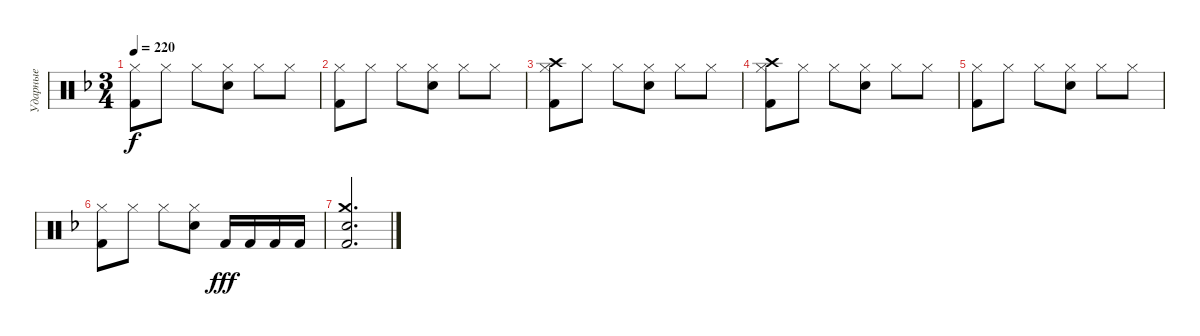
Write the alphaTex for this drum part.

\track ("Ударные" "Ударные") {instrument percussion}
\staff {score}
\articulation defaults
\ts (3 4)
\tempo 220
\clef neutral
\ks f
("Hi-Hat (closed)" "Kick (hit) 2").8{dy f} "Hi-Hat (closed)".8 "Hi-Hat (closed)".8 ("Hi-Hat (closed)" "Electric Snare (hit)").8 "Hi-Hat (closed)".8 "Hi-Hat (closed)".8 |
("Hi-Hat (closed)" "Kick (hit) 2").8 "Hi-Hat (closed)".8 "Hi-Hat (closed)".8 ("Hi-Hat (closed)" "Electric Snare (hit)").8 "Hi-Hat (closed)".8 "Hi-Hat (closed)".8 |
("Crash high (hit)" "Hi-Hat (closed)" "Kick (hit) 2").8 "Hi-Hat (closed)".8 "Hi-Hat (closed)".8 ("Hi-Hat (closed)" "Electric Snare (hit)").8 "Hi-Hat (closed)".8 "Hi-Hat (closed)".8 |
("Crash high (hit)" "Hi-Hat (closed)" "Kick (hit) 2").8 "Hi-Hat (closed)".8 "Hi-Hat (closed)".8 ("Hi-Hat (closed)" "Electric Snare (hit)").8 "Hi-Hat (closed)".8 "Hi-Hat (closed)".8 |
("Hi-Hat (closed)" "Kick (hit) 2").8 "Hi-Hat (closed)".8 "Hi-Hat (closed)".8 ("Hi-Hat (closed)" "Electric Snare (hit)").8 "Hi-Hat (closed)".8 "Hi-Hat (closed)".8 |
("Hi-Hat (closed)" "Kick (hit) 2").8 "Hi-Hat (closed)".8 "Hi-Hat (closed)".8 ("Hi-Hat (closed)" "Electric Snare (hit)").8 "Kick (hit) 2".16{dy fff} "Kick (hit) 2".16 "Kick (hit) 2".16 "Kick (hit) 2".16 |
("Crash medium (hit)" "Kick (hit) 2" "Snare (hit) 2").2{d}
